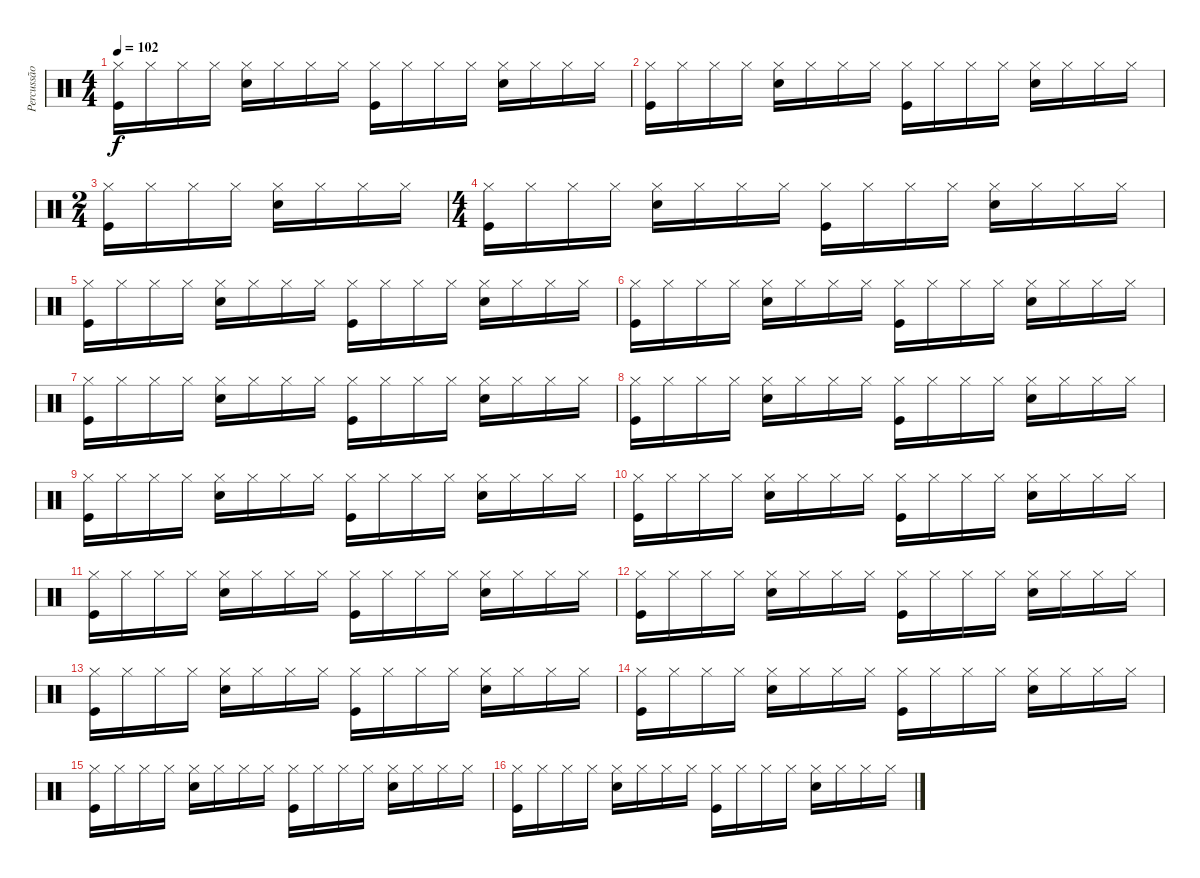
\track ("Percussão" "Percussão") {instrument percussion}
\staff {score}
\articulation defaults
\ts (4 4)
\tempo 102
\clef neutral
\ks c
("Hi-Hat (closed)" "Kick (hit)").16{dy f} "Hi-Hat (closed)".16 "Hi-Hat (closed)".16 "Hi-Hat (closed)".16 ("Hi-Hat (closed)" "Snare (hit) 2").16 "Hi-Hat (closed)".16 "Hi-Hat (closed)".16 "Hi-Hat (closed)".16 ("Hi-Hat (closed)" "Kick (hit)").16 "Hi-Hat (closed)".16 "Hi-Hat (closed)".16 "Hi-Hat (closed)".16 ("Hi-Hat (closed)" "Snare (hit) 2").16 "Hi-Hat (closed)".16 "Hi-Hat (closed)".16 "Hi-Hat (closed)".16 |
("Hi-Hat (closed)" "Kick (hit)").16 "Hi-Hat (closed)".16 "Hi-Hat (closed)".16 "Hi-Hat (closed)".16 ("Hi-Hat (closed)" "Snare (hit) 2").16 "Hi-Hat (closed)".16 "Hi-Hat (closed)".16 "Hi-Hat (closed)".16 ("Hi-Hat (closed)" "Kick (hit)").16 "Hi-Hat (closed)".16 "Hi-Hat (closed)".16 "Hi-Hat (closed)".16 ("Hi-Hat (closed)" "Snare (hit) 2").16 "Hi-Hat (closed)".16 "Hi-Hat (closed)".16 "Hi-Hat (closed)".16 |
\ts (2 4)
("Hi-Hat (closed)" "Kick (hit)").16 "Hi-Hat (closed)".16 "Hi-Hat (closed)".16 "Hi-Hat (closed)".16 ("Hi-Hat (closed)" "Snare (hit) 2").16 "Hi-Hat (closed)".16 "Hi-Hat (closed)".16 "Hi-Hat (closed)".16 |
\ts (4 4)
("Hi-Hat (closed)" "Kick (hit)").16 "Hi-Hat (closed)".16 "Hi-Hat (closed)".16 "Hi-Hat (closed)".16 ("Hi-Hat (closed)" "Snare (hit) 2").16 "Hi-Hat (closed)".16 "Hi-Hat (closed)".16 "Hi-Hat (closed)".16 ("Hi-Hat (closed)" "Kick (hit)").16 "Hi-Hat (closed)".16 "Hi-Hat (closed)".16 "Hi-Hat (closed)".16 ("Hi-Hat (closed)" "Snare (hit) 2").16 "Hi-Hat (closed)".16 "Hi-Hat (closed)".16 "Hi-Hat (closed)".16 |
("Hi-Hat (closed)" "Kick (hit)").16 "Hi-Hat (closed)".16 "Hi-Hat (closed)".16 "Hi-Hat (closed)".16 ("Hi-Hat (closed)" "Snare (hit) 2").16 "Hi-Hat (closed)".16 "Hi-Hat (closed)".16 "Hi-Hat (closed)".16 ("Hi-Hat (closed)" "Kick (hit)").16 "Hi-Hat (closed)".16 "Hi-Hat (closed)".16 "Hi-Hat (closed)".16 ("Hi-Hat (closed)" "Snare (hit) 2").16 "Hi-Hat (closed)".16 "Hi-Hat (closed)".16 "Hi-Hat (closed)".16 |
("Hi-Hat (closed)" "Kick (hit)").16 "Hi-Hat (closed)".16 "Hi-Hat (closed)".16 "Hi-Hat (closed)".16 ("Hi-Hat (closed)" "Snare (hit) 2").16 "Hi-Hat (closed)".16 "Hi-Hat (closed)".16 "Hi-Hat (closed)".16 ("Hi-Hat (closed)" "Kick (hit)").16 "Hi-Hat (closed)".16 "Hi-Hat (closed)".16 "Hi-Hat (closed)".16 ("Hi-Hat (closed)" "Snare (hit) 2").16 "Hi-Hat (closed)".16 "Hi-Hat (closed)".16 "Hi-Hat (closed)".16 |
("Hi-Hat (closed)" "Kick (hit)").16 "Hi-Hat (closed)".16 "Hi-Hat (closed)".16 "Hi-Hat (closed)".16 ("Hi-Hat (closed)" "Snare (hit) 2").16 "Hi-Hat (closed)".16 "Hi-Hat (closed)".16 "Hi-Hat (closed)".16 ("Hi-Hat (closed)" "Kick (hit)").16 "Hi-Hat (closed)".16 "Hi-Hat (closed)".16 "Hi-Hat (closed)".16 ("Hi-Hat (closed)" "Snare (hit) 2").16 "Hi-Hat (closed)".16 "Hi-Hat (closed)".16 "Hi-Hat (closed)".16 |
("Hi-Hat (closed)" "Kick (hit)").16 "Hi-Hat (closed)".16 "Hi-Hat (closed)".16 "Hi-Hat (closed)".16 ("Hi-Hat (closed)" "Snare (hit) 2").16 "Hi-Hat (closed)".16 "Hi-Hat (closed)".16 "Hi-Hat (closed)".16 ("Hi-Hat (closed)" "Kick (hit)").16 "Hi-Hat (closed)".16 "Hi-Hat (closed)".16 "Hi-Hat (closed)".16 ("Hi-Hat (closed)" "Snare (hit) 2").16 "Hi-Hat (closed)".16 "Hi-Hat (closed)".16 "Hi-Hat (closed)".16 |
("Hi-Hat (closed)" "Kick (hit)").16 "Hi-Hat (closed)".16 "Hi-Hat (closed)".16 "Hi-Hat (closed)".16 ("Hi-Hat (closed)" "Snare (hit) 2").16 "Hi-Hat (closed)".16 "Hi-Hat (closed)".16 "Hi-Hat (closed)".16 ("Hi-Hat (closed)" "Kick (hit)").16 "Hi-Hat (closed)".16 "Hi-Hat (closed)".16 "Hi-Hat (closed)".16 ("Hi-Hat (closed)" "Snare (hit) 2").16 "Hi-Hat (closed)".16 "Hi-Hat (closed)".16 "Hi-Hat (closed)".16 |
("Hi-Hat (closed)" "Kick (hit)").16 "Hi-Hat (closed)".16 "Hi-Hat (closed)".16 "Hi-Hat (closed)".16 ("Hi-Hat (closed)" "Snare (hit) 2").16 "Hi-Hat (closed)".16 "Hi-Hat (closed)".16 "Hi-Hat (closed)".16 ("Hi-Hat (closed)" "Kick (hit)").16 "Hi-Hat (closed)".16 "Hi-Hat (closed)".16 "Hi-Hat (closed)".16 ("Hi-Hat (closed)" "Snare (hit) 2").16 "Hi-Hat (closed)".16 "Hi-Hat (closed)".16 "Hi-Hat (closed)".16 |
("Hi-Hat (closed)" "Kick (hit)").16 "Hi-Hat (closed)".16 "Hi-Hat (closed)".16 "Hi-Hat (closed)".16 ("Hi-Hat (closed)" "Snare (hit) 2").16 "Hi-Hat (closed)".16 "Hi-Hat (closed)".16 "Hi-Hat (closed)".16 ("Hi-Hat (closed)" "Kick (hit)").16 "Hi-Hat (closed)".16 "Hi-Hat (closed)".16 "Hi-Hat (closed)".16 ("Hi-Hat (closed)" "Snare (hit) 2").16 "Hi-Hat (closed)".16 "Hi-Hat (closed)".16 "Hi-Hat (closed)".16 |
("Hi-Hat (closed)" "Kick (hit)").16 "Hi-Hat (closed)".16 "Hi-Hat (closed)".16 "Hi-Hat (closed)".16 ("Hi-Hat (closed)" "Snare (hit) 2").16 "Hi-Hat (closed)".16 "Hi-Hat (closed)".16 "Hi-Hat (closed)".16 ("Hi-Hat (closed)" "Kick (hit)").16 "Hi-Hat (closed)".16 "Hi-Hat (closed)".16 "Hi-Hat (closed)".16 ("Hi-Hat (closed)" "Snare (hit) 2").16 "Hi-Hat (closed)".16 "Hi-Hat (closed)".16 "Hi-Hat (closed)".16 |
("Hi-Hat (closed)" "Kick (hit)").16 "Hi-Hat (closed)".16 "Hi-Hat (closed)".16 "Hi-Hat (closed)".16 ("Hi-Hat (closed)" "Snare (hit) 2").16 "Hi-Hat (closed)".16 "Hi-Hat (closed)".16 "Hi-Hat (closed)".16 ("Hi-Hat (closed)" "Kick (hit)").16 "Hi-Hat (closed)".16 "Hi-Hat (closed)".16 "Hi-Hat (closed)".16 ("Hi-Hat (closed)" "Snare (hit) 2").16 "Hi-Hat (closed)".16 "Hi-Hat (closed)".16 "Hi-Hat (closed)".16 |
("Hi-Hat (closed)" "Kick (hit)").16 "Hi-Hat (closed)".16 "Hi-Hat (closed)".16 "Hi-Hat (closed)".16 ("Hi-Hat (closed)" "Snare (hit) 2").16 "Hi-Hat (closed)".16 "Hi-Hat (closed)".16 "Hi-Hat (closed)".16 ("Hi-Hat (closed)" "Kick (hit)").16 "Hi-Hat (closed)".16 "Hi-Hat (closed)".16 "Hi-Hat (closed)".16 ("Hi-Hat (closed)" "Snare (hit) 2").16 "Hi-Hat (closed)".16 "Hi-Hat (closed)".16 "Hi-Hat (closed)".16 |
("Hi-Hat (closed)" "Kick (hit)").16 "Hi-Hat (closed)".16 "Hi-Hat (closed)".16 "Hi-Hat (closed)".16 ("Hi-Hat (closed)" "Snare (hit) 2").16 "Hi-Hat (closed)".16 "Hi-Hat (closed)".16 "Hi-Hat (closed)".16 ("Hi-Hat (closed)" "Kick (hit)").16 "Hi-Hat (closed)".16 "Hi-Hat (closed)".16 "Hi-Hat (closed)".16 ("Hi-Hat (closed)" "Snare (hit) 2").16 "Hi-Hat (closed)".16 "Hi-Hat (closed)".16 "Hi-Hat (closed)".16 |
("Hi-Hat (closed)" "Kick (hit)").16 "Hi-Hat (closed)".16 "Hi-Hat (closed)".16 "Hi-Hat (closed)".16 ("Hi-Hat (closed)" "Snare (hit) 2").16 "Hi-Hat (closed)".16 "Hi-Hat (closed)".16 "Hi-Hat (closed)".16 ("Hi-Hat (closed)" "Kick (hit)").16 "Hi-Hat (closed)".16 "Hi-Hat (closed)".16 "Hi-Hat (closed)".16 ("Hi-Hat (closed)" "Snare (hit) 2").16 "Hi-Hat (closed)".16 "Hi-Hat (closed)".16 "Hi-Hat (closed)".16
